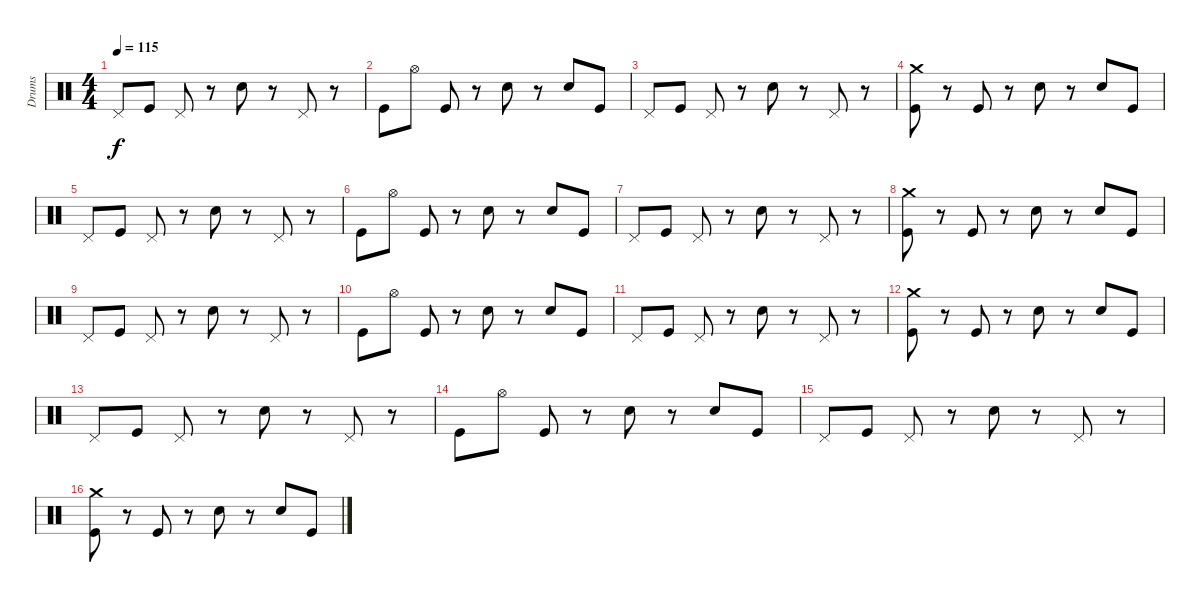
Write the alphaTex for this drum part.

\track ("Drums" "Drums") {instrument percussion}
\staff {score}
\articulation defaults
\ts (4 4)
\tempo 115
\clef neutral
\ks c "Pedal Hi-Hat (hit)".8{dy f} "Kick (hit)".8 "Pedal Hi-Hat (hit)".8
r.8 "Snare (hit) 2".8 r.8 "Pedal Hi-Hat (hit)".8 r.8 |
"Kick (hit)".8 "Hi-Hat (open)".8 "Kick (hit)".8 r.8 "Snare (hit) 2".8 r.8 "Snare (hit) 2".8 "Kick (hit)".8 |
"Pedal Hi-Hat (hit)".8 "Kick (hit)".8 "Pedal Hi-Hat (hit)".8 r.8 "Snare (hit) 2".8 r.8 "Pedal Hi-Hat (hit)".8 r.8 |
("Crash medium (hit)" "Kick (hit)").8 r.8 "Kick (hit)".8 r.8 "Snare (hit) 2".8 r.8 "Snare (hit) 2".8 "Kick (hit)".8 |
"Pedal Hi-Hat (hit)".8 "Kick (hit)".8 "Pedal Hi-Hat (hit)".8 r.8 "Snare (hit) 2".8 r.8 "Pedal Hi-Hat (hit)".8 r.8 |
"Kick (hit)".8 "Hi-Hat (open)".8 "Kick (hit)".8 r.8 "Snare (hit) 2".8 r.8 "Snare (hit) 2".8 "Kick (hit)".8 |
"Pedal Hi-Hat (hit)".8 "Kick (hit)".8 "Pedal Hi-Hat (hit)".8 r.8 "Snare (hit) 2".8 r.8 "Pedal Hi-Hat (hit)".8 r.8 |
("Crash medium (hit)" "Kick (hit)").8 r.8 "Kick (hit)".8 r.8 "Snare (hit) 2".8 r.8 "Snare (hit) 2".8 "Kick (hit)".8 |
"Pedal Hi-Hat (hit)".8 "Kick (hit)".8 "Pedal Hi-Hat (hit)".8 r.8 "Snare (hit) 2".8 r.8 "Pedal Hi-Hat (hit)".8 r.8 |
"Kick (hit)".8 "Hi-Hat (open)".8 "Kick (hit)".8 r.8 "Snare (hit) 2".8 r.8 "Snare (hit) 2".8 "Kick (hit)".8 |
"Pedal Hi-Hat (hit)".8 "Kick (hit)".8 "Pedal Hi-Hat (hit)".8 r.8 "Snare (hit) 2".8 r.8 "Pedal Hi-Hat (hit)".8 r.8 |
("Crash medium (hit)" "Kick (hit)").8 r.8 "Kick (hit)".8 r.8 "Snare (hit) 2".8 r.8 "Snare (hit) 2".8 "Kick (hit)".8 |
"Pedal Hi-Hat (hit)".8 "Kick (hit)".8 "Pedal Hi-Hat (hit)".8 r.8 "Snare (hit) 2".8 r.8 "Pedal Hi-Hat (hit)".8 r.8 |
"Kick (hit)".8 "Hi-Hat (open)".8 "Kick (hit)".8 r.8 "Snare (hit) 2".8 r.8 "Snare (hit) 2".8 "Kick (hit)".8 |
"Pedal Hi-Hat (hit)".8 "Kick (hit)".8 "Pedal Hi-Hat (hit)".8 r.8 "Snare (hit) 2".8 r.8 "Pedal Hi-Hat (hit)".8 r.8 |
("Crash medium (hit)" "Kick (hit)").8 r.8 "Kick (hit)".8 r.8 "Snare (hit) 2".8 r.8 "Snare (hit) 2".8 "Kick (hit)".8
